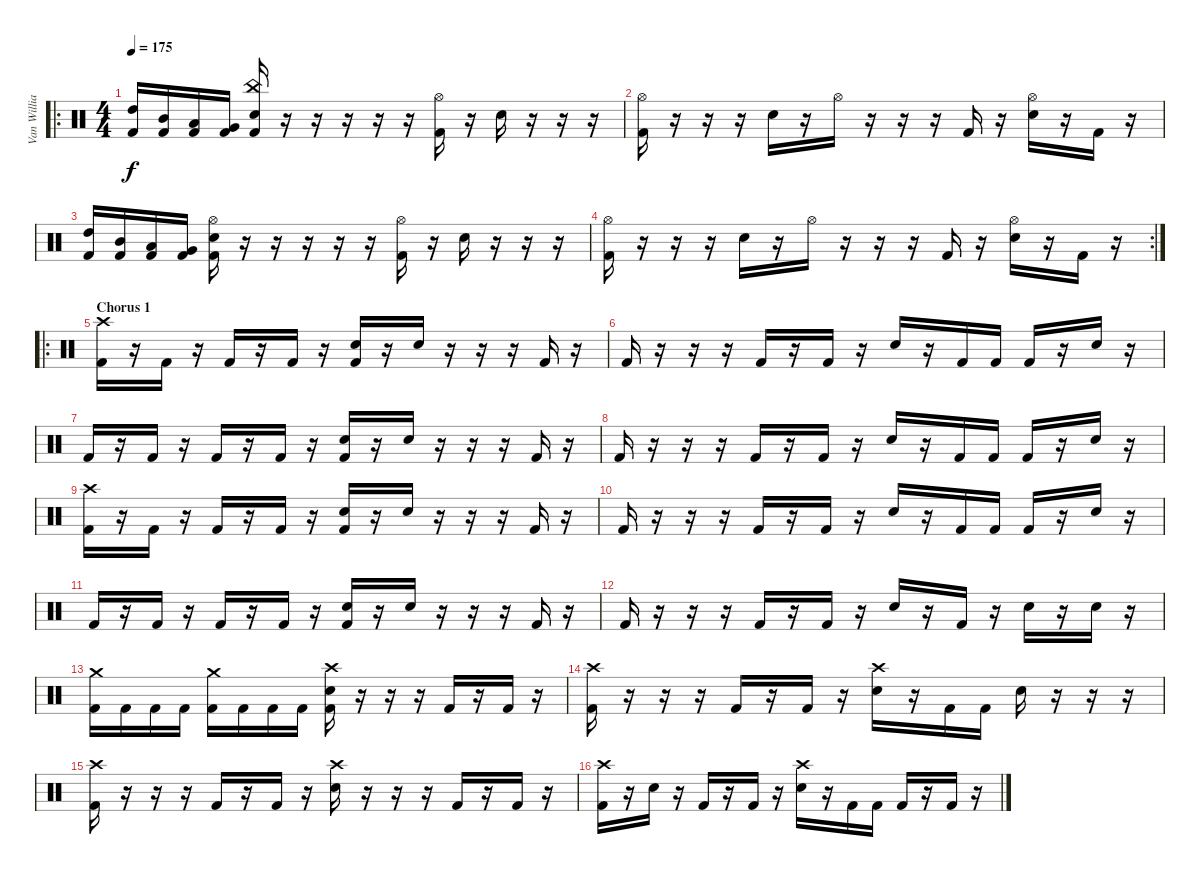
\track ("Van Williams" "Van Willia") {instrument percussion}
\staff {score}
\articulation defaults
\ro
\ts (4 4)
\tempo 175
\clef neutral
\ks c
("Kick (hit) 2" "High Tom (hit)").16{dy f} ("Kick (hit) 2" "Mid Tom (hit)").16 ("Kick (hit) 2" "Low Tom (hit)").16 ("Kick (hit) 2" "Very Low Tom (hit)").16 ("China (hit)" "Kick (hit) 2" "Electric Snare (hit)").16 r.16 r.16 r.16 r.16 r.16 ("Hi-Hat (open)" "Kick (hit) 2").16 r.16 "Electric Snare (hit)".16 r.16 r.16 r.16 |
("Hi-Hat (open)" "Kick (hit) 2").16 r.16 r.16 r.16 "Electric Snare (hit)".16 r.16 "Hi-Hat (open)".16 r.16 r.16 r.16 "Kick (hit) 2".16 r.16 ("Hi-Hat (open)" "Electric Snare (hit)").16 r.16 "Kick (hit) 2".16 r.16 |
("Kick (hit) 2" "High Tom (hit)").16 ("Kick (hit) 2" "Mid Tom (hit)").16 ("Kick (hit) 2" "Low Tom (hit)").16 ("Kick (hit) 2" "Very Low Tom (hit)").16 ("Hi-Hat (open)" "Kick (hit) 2" "Electric Snare (hit)").16 r.16 r.16 r.16 r.16 r.16 ("Hi-Hat (open)" "Kick (hit) 2").16 r.16 "Electric Snare (hit)".16 r.16 r.16 r.16 |
\rc 2
("Hi-Hat (open)" "Kick (hit) 2").16 r.16 r.16 r.16 "Electric Snare (hit)".16 r.16 "Hi-Hat (open)".16 r.16 r.16 r.16 "Kick (hit) 2".16 r.16 ("Hi-Hat (open)" "Electric Snare (hit)").16 r.16 "Kick (hit) 2".16 r.16 |
\ro
\section ("" "Chorus 1")
("Crash high (hit)" "Kick (hit) 2").16 r.16 "Kick (hit) 2".16 r.16 "Kick (hit) 2".16 r.16 "Kick (hit) 2".16 r.16 ("Kick (hit) 2" "Electric Snare (hit)").16 r.16 "Electric Snare (hit)".16 r.16 r.16 r.16 "Kick (hit) 2".16 r.16 |
"Kick (hit) 2".16 r.16 r.16 r.16 "Kick (hit) 2".16 r.16 "Kick (hit) 2".16 r.16 "Electric Snare (hit)".16 r.16 "Kick (hit) 2".16 "Kick (hit) 2".16 "Kick (hit) 2".16 r.16 "Electric Snare (hit)".16 r.16 |
"Kick (hit) 2".16 r.16 "Kick (hit) 2".16 r.16 "Kick (hit) 2".16 r.16 "Kick (hit) 2".16 r.16 ("Kick (hit) 2" "Electric Snare (hit)").16 r.16 "Electric Snare (hit)".16 r.16 r.16 r.16 "Kick (hit) 2".16 r.16 |
"Kick (hit) 2".16 r.16 r.16 r.16 "Kick (hit) 2".16 r.16 "Kick (hit) 2".16 r.16 "Electric Snare (hit)".16 r.16 "Kick (hit) 2".16 "Kick (hit) 2".16 "Kick (hit) 2".16 r.16 "Electric Snare (hit)".16 r.16 |
("Crash high (hit)" "Kick (hit) 2").16 r.16 "Kick (hit) 2".16 r.16 "Kick (hit) 2".16 r.16 "Kick (hit) 2".16 r.16 ("Kick (hit) 2" "Electric Snare (hit)").16 r.16 "Electric Snare (hit)".16 r.16 r.16 r.16 "Kick (hit) 2".16 r.16 |
"Kick (hit) 2".16 r.16 r.16 r.16 "Kick (hit) 2".16 r.16 "Kick (hit) 2".16 r.16 "Electric Snare (hit)".16 r.16 "Kick (hit) 2".16 "Kick (hit) 2".16 "Kick (hit) 2".16 r.16 "Electric Snare (hit)".16 r.16 |
"Kick (hit) 2".16 r.16 "Kick (hit) 2".16 r.16 "Kick (hit) 2".16 r.16 "Kick (hit) 2".16 r.16 ("Kick (hit) 2" "Electric Snare (hit)").16 r.16 "Electric Snare (hit)".16 r.16 r.16 r.16 "Kick (hit) 2".16 r.16 |
"Kick (hit) 2".16 r.16 r.16 r.16 "Kick (hit) 2".16 r.16 "Kick (hit) 2".16 r.16 "Electric Snare (hit)".16 r.16 "Kick (hit) 2".16 r.16 "Electric Snare (hit)".16 r.16 "Electric Snare (hit)".16 r.16 |
("Crash medium (hit)" "Kick (hit) 2").16 "Kick (hit) 2".16 "Kick (hit) 2".16 "Kick (hit) 2".16 ("Crash medium (hit)" "Kick (hit) 2").16 "Kick (hit) 2".16 "Kick (hit) 2".16 "Kick (hit) 2".16 ("Crash high (hit)" "Kick (hit) 2" "Electric Snare (hit)").16 r.16 r.16 r.16 "Kick (hit) 2".16 r.16 "Kick (hit) 2".16 r.16 |
("Crash high (hit)" "Kick (hit) 2").16 r.16 r.16 r.16 "Kick (hit) 2".16 r.16 "Kick (hit) 2".16 r.16 ("Crash high (hit)" "Electric Snare (hit)").16 r.16 "Kick (hit) 2".16 "Kick (hit) 2".16 "Electric Snare (hit)".16 r.16 r.16 r.16 |
("Crash high (hit)" "Kick (hit) 2").16 r.16 r.16 r.16 "Kick (hit) 2".16 r.16 "Kick (hit) 2".16 r.16 ("Crash high (hit)" "Electric Snare (hit)").16 r.16 r.16 r.16 "Kick (hit) 2".16 r.16 "Kick (hit) 2".16 r.16 |
("Crash high (hit)" "Kick (hit) 2").16 r.16 "Electric Snare (hit)".16 r.16 "Kick (hit) 2".16 r.16 "Kick (hit) 2".16 r.16 ("Crash high (hit)" "Electric Snare (hit)").16 r.16 "Kick (hit) 2".16 "Kick (hit) 2".16 "Kick (hit) 2".16 r.16 "Kick (hit) 2".16 r.16
